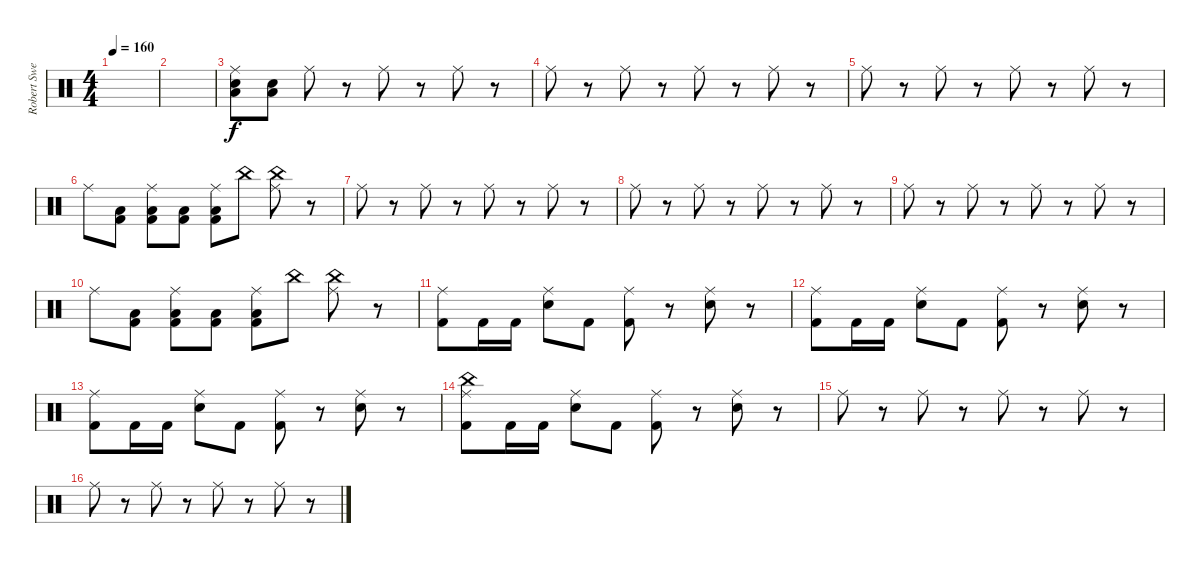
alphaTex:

\track ("Robert Sweet" "Robert Swe") {instrument percussion}
\staff {score}
\articulation defaults
\ts (4 4)
\tempo 160
\clef neutral
\ks c
|
|
("Ride (middle)" "Low Floor Tom (hit)" "Electric Snare (hit)").8 ("Low Floor Tom (hit)" "Electric Snare (hit)").8 "Ride (middle)".8 r.8 "Ride (middle)".8 r.8 "Ride (middle)".8 r.8 |
"Ride (middle)".8 r.8 "Ride (middle)".8 r.8 "Ride (middle)".8 r.8 "Ride (middle)".8 r.8 |
"Ride (middle)".8 r.8 "Ride (middle)".8 r.8 "Ride (middle)".8 r.8 "Ride (middle)".8 r.8 |
"Ride (middle)".8 ("Low Floor Tom (hit)" "Kick (hit) 2").8 ("Ride (middle)" "Low Floor Tom (hit)" "Kick (hit) 2").8 ("Low Floor Tom (hit)" "Kick (hit) 2").8 ("Ride (middle)" "Low Floor Tom (hit)" "Kick (hit) 2").8 "China (hit)".8 ("Ride (middle)" "China (hit)").8 r.8 |
"Ride (middle)".8 r.8 "Ride (middle)".8 r.8 "Ride (middle)".8 r.8 "Ride (middle)".8 r.8 |
"Ride (middle)".8 r.8 "Ride (middle)".8 r.8 "Ride (middle)".8 r.8 "Ride (middle)".8 r.8 |
"Ride (middle)".8 r.8 "Ride (middle)".8 r.8 "Ride (middle)".8 r.8 "Ride (middle)".8 r.8 |
"Ride (middle)".8 ("Low Floor Tom (hit)" "Kick (hit) 2").8 ("Ride (middle)" "Low Floor Tom (hit)" "Kick (hit) 2").8 ("Low Floor Tom (hit)" "Kick (hit) 2").8 ("Ride (middle)" "Low Floor Tom (hit)" "Kick (hit) 2").8 "China (hit)".8 ("Ride (middle)" "China (hit)").8 r.8 |
("Ride (middle)" "Kick (hit) 2").8 "Kick (hit) 2".16 "Kick (hit) 2".16 ("Ride (middle)" "Electric Snare (hit)").8 "Kick (hit) 2".8 ("Ride (middle)" "Kick (hit) 2").8 r.8 ("Ride (middle)" "Electric Snare (hit)").8 r.8 |
("Ride (middle)" "Kick (hit) 2").8 "Kick (hit) 2".16 "Kick (hit) 2".16 ("Ride (middle)" "Electric Snare (hit)").8 "Kick (hit) 2".8 ("Ride (middle)" "Kick (hit) 2").8 r.8 ("Ride (middle)" "Electric Snare (hit)").8 r.8 |
("Ride (middle)" "Kick (hit) 2").8 "Kick (hit) 2".16 "Kick (hit) 2".16 ("Ride (middle)" "Electric Snare (hit)").8 "Kick (hit) 2".8 ("Ride (middle)" "Kick (hit) 2").8 r.8 ("Ride (middle)" "Electric Snare (hit)").8 r.8 |
("Ride (middle)" "China (hit)" "Kick (hit) 2").8 "Kick (hit) 2".16 "Kick (hit) 2".16 ("Ride (middle)" "Electric Snare (hit)").8 "Kick (hit) 2".8 ("Ride (middle)" "Kick (hit) 2").8 r.8 ("Ride (middle)" "Electric Snare (hit)").8 r.8 |
"Ride (middle)".8 r.8 "Ride (middle)".8 r.8 "Ride (middle)".8 r.8 "Ride (middle)".8 r.8 |
"Ride (middle)".8 r.8 "Ride (middle)".8 r.8 "Ride (middle)".8 r.8 "Ride (middle)".8 r.8
